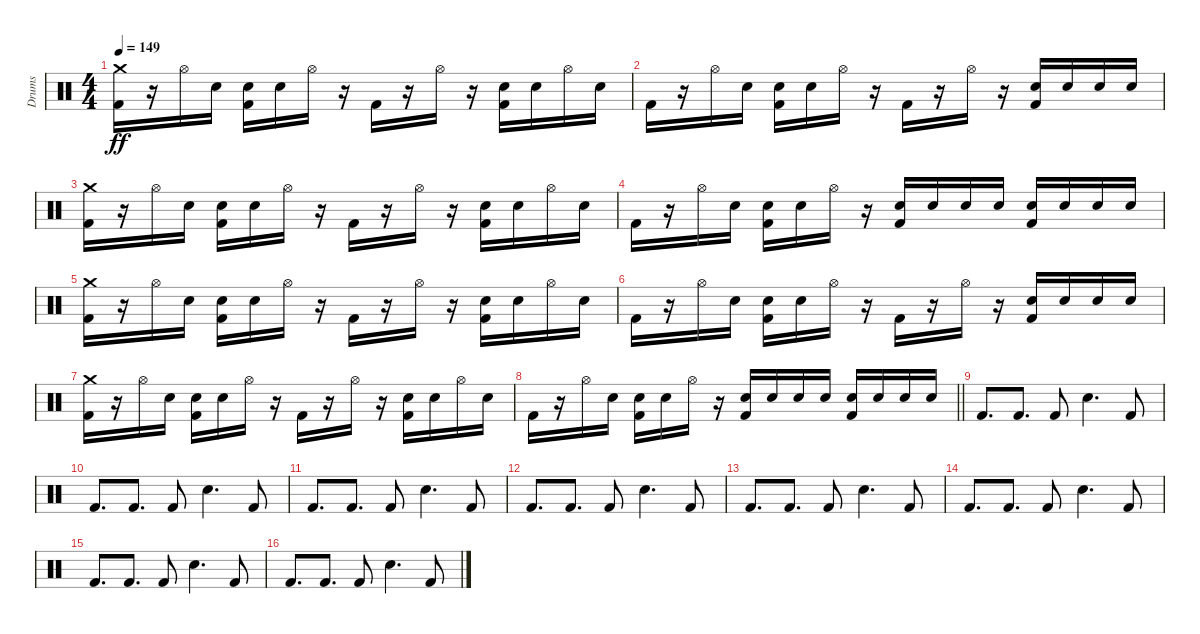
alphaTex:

\track ("Drums" "Drums") {instrument percussion}
\staff {score}
\articulation defaults
\ts (4 4)
\tempo 149
\clef neutral
\ks c
("Crash medium (hit)" "Kick (hit) 2").16{dy ff} r.16 "Hi-Hat (open)".16 "Electric Snare (hit)".16 ("Electric Snare (hit)" "Kick (hit) 2").16 "Electric Snare (hit)".16 "Hi-Hat (open)".16 r.16 "Kick (hit) 2".16 r.16 "Hi-Hat (open)".16 r.16 ("Electric Snare (hit)" "Kick (hit) 2").16 "Electric Snare (hit)".16 "Hi-Hat (open)".16 "Electric Snare (hit)".16 |
"Kick (hit) 2".16 r.16 "Hi-Hat (open)".16 "Electric Snare (hit)".16 ("Electric Snare (hit)" "Kick (hit) 2").16 "Electric Snare (hit)".16 "Hi-Hat (open)".16 r.16 "Kick (hit) 2".16 r.16 "Hi-Hat (open)".16 r.16 ("Electric Snare (hit)" "Kick (hit) 2").16 "Electric Snare (hit)".16 "Electric Snare (hit)".16 "Electric Snare (hit)".16 |
("Crash medium (hit)" "Kick (hit) 2").16 r.16 "Hi-Hat (open)".16 "Electric Snare (hit)".16 ("Electric Snare (hit)" "Kick (hit) 2").16 "Electric Snare (hit)".16 "Hi-Hat (open)".16 r.16 "Kick (hit) 2".16 r.16 "Hi-Hat (open)".16 r.16 ("Electric Snare (hit)" "Kick (hit) 2").16 "Electric Snare (hit)".16 "Hi-Hat (open)".16 "Electric Snare (hit)".16 |
"Kick (hit) 2".16 r.16 "Hi-Hat (open)".16 "Electric Snare (hit)".16 ("Electric Snare (hit)" "Kick (hit) 2").16 "Electric Snare (hit)".16 "Hi-Hat (open)".16 r.16 ("Electric Snare (hit)" "Kick (hit) 2").16 "Electric Snare (hit)".16 "Electric Snare (hit)".16 "Electric Snare (hit)".16 ("Electric Snare (hit)" "Kick (hit) 2").16 "Electric Snare (hit)".16 "Electric Snare (hit)".16 "Electric Snare (hit)".16 |
("Crash medium (hit)" "Kick (hit) 2").16 r.16 "Hi-Hat (open)".16 "Electric Snare (hit)".16 ("Electric Snare (hit)" "Kick (hit) 2").16 "Electric Snare (hit)".16 "Hi-Hat (open)".16 r.16 "Kick (hit) 2".16 r.16 "Hi-Hat (open)".16 r.16 ("Electric Snare (hit)" "Kick (hit) 2").16 "Electric Snare (hit)".16 "Hi-Hat (open)".16 "Electric Snare (hit)".16 |
"Kick (hit) 2".16 r.16 "Hi-Hat (open)".16 "Electric Snare (hit)".16 ("Electric Snare (hit)" "Kick (hit) 2").16 "Electric Snare (hit)".16 "Hi-Hat (open)".16 r.16 "Kick (hit) 2".16 r.16 "Hi-Hat (open)".16 r.16 ("Electric Snare (hit)" "Kick (hit) 2").16 "Electric Snare (hit)".16 "Electric Snare (hit)".16 "Electric Snare (hit)".16 |
("Crash medium (hit)" "Kick (hit) 2").16 r.16 "Hi-Hat (open)".16 "Electric Snare (hit)".16 ("Electric Snare (hit)" "Kick (hit) 2").16 "Electric Snare (hit)".16 "Hi-Hat (open)".16 r.16 "Kick (hit) 2".16 r.16 "Hi-Hat (open)".16 r.16 ("Electric Snare (hit)" "Kick (hit) 2").16 "Electric Snare (hit)".16 "Hi-Hat (open)".16 "Electric Snare (hit)".16 |
\barLineRight lightlight "Kick (hit) 2".16
r.16 "Hi-Hat (open)".16 "Electric Snare (hit)".16 ("Electric Snare (hit)" "Kick (hit) 2").16 "Electric Snare (hit)".16 "Hi-Hat (open)".16 r.16 ("Electric Snare (hit)" "Kick (hit) 2").16 "Electric Snare (hit)".16 "Electric Snare (hit)".16 "Electric Snare (hit)".16 ("Electric Snare (hit)" "Kick (hit) 2").16 "Electric Snare (hit)".16 "Electric Snare (hit)".16 "Electric Snare (hit)".16 |
\section ("" "")
"Kick (hit) 2".8{d} "Kick (hit) 2".8{d} "Kick (hit) 2".8 "Electric Snare (hit)".4{d} "Kick (hit) 2".8 |
"Kick (hit) 2".8{d} "Kick (hit) 2".8{d} "Kick (hit) 2".8 "Electric Snare (hit)".4{d} "Kick (hit) 2".8 |
"Kick (hit) 2".8{d} "Kick (hit) 2".8{d} "Kick (hit) 2".8 "Electric Snare (hit)".4{d} "Kick (hit) 2".8 |
"Kick (hit) 2".8{d} "Kick (hit) 2".8{d} "Kick (hit) 2".8 "Electric Snare (hit)".4{d} "Kick (hit) 2".8 |
"Kick (hit) 2".8{d} "Kick (hit) 2".8{d} "Kick (hit) 2".8 "Electric Snare (hit)".4{d} "Kick (hit) 2".8 |
"Kick (hit) 2".8{d} "Kick (hit) 2".8{d} "Kick (hit) 2".8 "Electric Snare (hit)".4{d} "Kick (hit) 2".8 |
"Kick (hit) 2".8{d} "Kick (hit) 2".8{d} "Kick (hit) 2".8 "Electric Snare (hit)".4{d} "Kick (hit) 2".8 |
"Kick (hit) 2".8{d} "Kick (hit) 2".8{d} "Kick (hit) 2".8 "Electric Snare (hit)".4{d} "Kick (hit) 2".8
